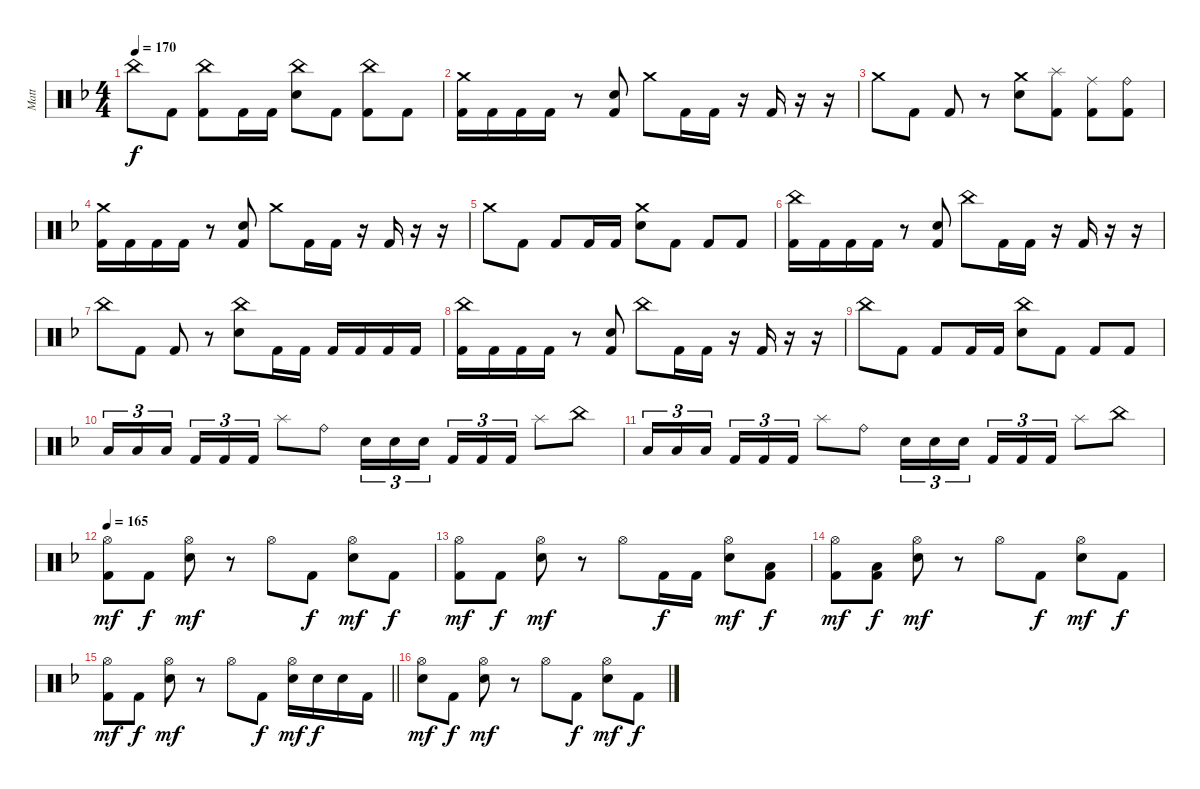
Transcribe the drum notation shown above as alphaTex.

\track ("Matt" "Matt") {instrument percussion}
\staff {score}
\articulation defaults
\ts (4 4)
\tempo 170
\clef neutral
\ks f "China (hit)".8{dy f} "Kick (hit) 2".8
("China (hit)" "Kick (hit) 2").8 "Kick (hit) 2".16 "Kick (hit) 2".16 ("China (hit)" "Electric Snare (hit)").8 "Kick (hit) 2".8 ("China (hit)" "Kick (hit) 2").8 "Kick (hit) 2".8 |
("Crash medium (hit)" "Kick (hit) 2").16 "Kick (hit) 2".16 "Kick (hit) 2".16 "Kick (hit) 2".16 r.8 ("Electric Snare (hit)" "Kick (hit) 2").8 "Crash medium (hit)".8 "Kick (hit) 2".16 "Kick (hit) 2".16 r.16 "Kick (hit) 2".16 r.16 r.16 |
"Crash medium (hit)".8 "Kick (hit) 2".8 "Kick (hit) 2".8 r.8 ("Crash medium (hit)" "Electric Snare (hit)").8 ("Splash (hit)" "Kick (hit) 2").8 ("Ride (middle)" "Kick (hit) 2").8 ("Ride (bell)" "Kick (hit) 2").8 |
("Crash medium (hit)" "Kick (hit) 2").16 "Kick (hit) 2".16 "Kick (hit) 2".16 "Kick (hit) 2".16 r.8 ("Electric Snare (hit)" "Kick (hit) 2").8 "Crash medium (hit)".8 "Kick (hit) 2".16 "Kick (hit) 2".16 r.16 "Kick (hit) 2".16 r.16 r.16 |
"Crash medium (hit)".8 "Kick (hit) 2".8 "Kick (hit) 2".8 "Kick (hit) 2".16 "Kick (hit) 2".16 ("Crash medium (hit)" "Electric Snare (hit)").8 "Kick (hit) 2".8 "Kick (hit) 2".8 "Kick (hit) 2".8 |
("China (hit)" "Kick (hit) 2").16 "Kick (hit) 2".16 "Kick (hit) 2".16 "Kick (hit) 2".16 r.8 ("Electric Snare (hit)" "Kick (hit) 2").8 "China (hit)".8 "Kick (hit) 2".16 "Kick (hit) 2".16 r.16 "Kick (hit) 2".16 r.16 r.16 |
"China (hit)".8 "Kick (hit) 2".8 "Kick (hit) 2".8 r.8 ("China (hit)" "Electric Snare (hit)").8 "Kick (hit) 2".16 "Kick (hit) 2".16 "Kick (hit) 2".16 "Kick (hit) 2".16 "Kick (hit) 2".16 "Kick (hit) 2".16 |
("China (hit)" "Kick (hit) 2").16 "Kick (hit) 2".16 "Kick (hit) 2".16 "Kick (hit) 2".16 r.8 ("Electric Snare (hit)" "Kick (hit) 2").8 "China (hit)".8 "Kick (hit) 2".16 "Kick (hit) 2".16 r.16 "Kick (hit) 2".16 r.16 r.16 |
"China (hit)".8 "Kick (hit) 2".8 "Kick (hit) 2".8 "Kick (hit) 2".16 "Kick (hit) 2".16 ("China (hit)" "Electric Snare (hit)").8 "Kick (hit) 2".8 "Kick (hit) 2".8 "Kick (hit) 2".8 |
"Low Tom (hit)".16{tu (3 2)} "Low Tom (hit)".16{tu (3 2)} "Low Tom (hit)".16{tu (3 2) beam splitsecondary} "Kick (hit) 2".16{tu (3 2)} "Kick (hit) 2".16{tu (3 2)} "Kick (hit) 2".16{tu (3 2)} "Splash (hit)".8 "Ride (bell)".8 "Electric Snare (hit)".16{tu (3 2)} "Electric Snare (hit)".16{tu (3 2)} "Electric Snare (hit)".16{tu (3 2) beam splitsecondary} "Kick (hit) 2".16{tu (3 2)} "Kick (hit) 2".16{tu (3 2)} "Kick (hit) 2".16{tu (3 2)} "Splash (hit)".8 "China (hit)".8 |
"Low Tom (hit)".16{tu (3 2)} "Low Tom (hit)".16{tu (3 2)} "Low Tom (hit)".16{tu (3 2) beam splitsecondary} "Kick (hit) 2".16{tu (3 2)} "Kick (hit) 2".16{tu (3 2)} "Kick (hit) 2".16{tu (3 2)} "Splash (hit)".8 "Ride (bell)".8 "Electric Snare (hit)".16{tu (3 2)} "Electric Snare (hit)".16{tu (3 2)} "Electric Snare (hit)".16{tu (3 2) beam splitsecondary} "Kick (hit) 2".16{tu (3 2)} "Kick (hit) 2".16{tu (3 2)} "Kick (hit) 2".16{tu (3 2)} "Splash (hit)".8 "China (hit)".8 |
\tempo 165
("Hi-Hat (open)" "Kick (hit) 2").8{dy mf} "Kick (hit) 2".8{dy f} ("Hi-Hat (open)" "Electric Snare (hit)").8{dy mf} r.8 "Hi-Hat (open)".8 "Kick (hit) 2".8{dy f} ("Hi-Hat (open)" "Electric Snare (hit)").8{dy mf} "Kick (hit) 2".8{dy f} |
("Hi-Hat (open)" "Kick (hit) 2").8{dy mf} "Kick (hit) 2".8{dy f} ("Hi-Hat (open)" "Electric Snare (hit)").8{dy mf} r.8 "Hi-Hat (open)".8 "Kick (hit) 2".16{dy f} "Kick (hit) 2".16 ("Hi-Hat (open)" "Electric Snare (hit)").8{dy mf} ("Low Tom (hit)" "Kick (hit) 2").8{dy f} |
("Hi-Hat (open)" "Kick (hit) 2").8{dy mf} ("Low Tom (hit)" "Kick (hit) 2").8{dy f} ("Hi-Hat (open)" "Electric Snare (hit)").8{dy mf} r.8 "Hi-Hat (open)".8 "Kick (hit) 2".8{dy f} ("Hi-Hat (open)" "Electric Snare (hit)").8{dy mf} "Kick (hit) 2".8{dy f} |
\barLineRight lightlight
("Hi-Hat (open)" "Kick (hit) 2").8{dy mf} "Kick (hit) 2".8{dy f} ("Hi-Hat (open)" "Electric Snare (hit)").8{dy mf} r.8 "Hi-Hat (open)".8 "Kick (hit) 2".8{dy f} ("Hi-Hat (open)" "Electric Snare (hit)").16{dy mf} "Electric Snare (hit)".16{dy f} "Electric Snare (hit)".16 "Kick (hit) 2".16 |
("Hi-Hat (open)" "Electric Snare (hit)").8{dy mf} "Kick (hit) 2".8{dy f} ("Hi-Hat (open)" "Electric Snare (hit)").8{dy mf} r.8 "Hi-Hat (open)".8 "Kick (hit) 2".8{dy f} ("Hi-Hat (open)" "Electric Snare (hit)").8{dy mf} "Kick (hit) 2".8{dy f}
